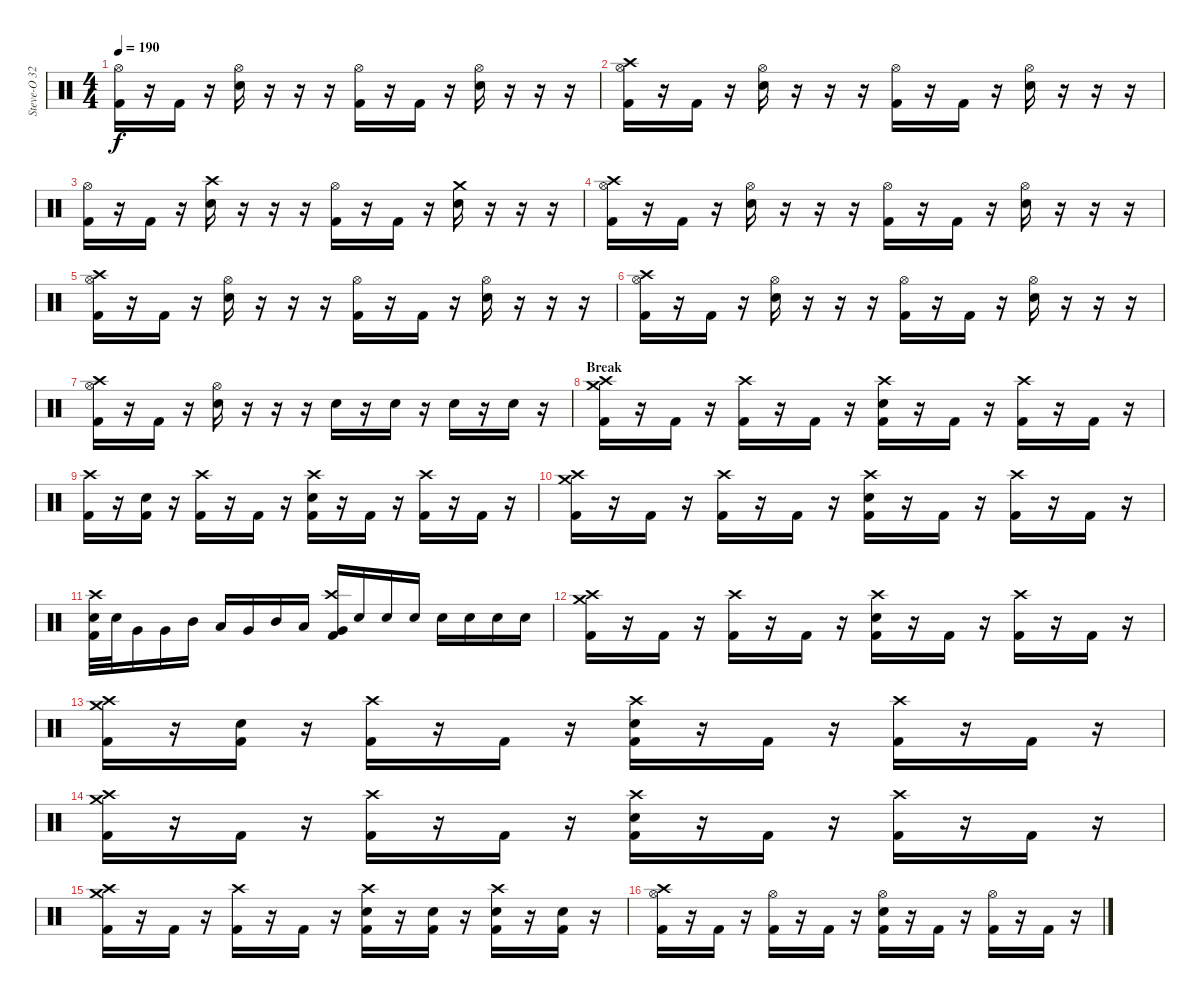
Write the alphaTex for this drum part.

\track ("Steve-O 32 ( Drums )" "Steve-O 32") {instrument percussion}
\staff {score}
\articulation defaults
\ts (4 4)
\tempo 190
\clef neutral
\ks c
("Hi-Hat (open)" "Kick (hit) 2").16{dy f} r.16 "Kick (hit) 2".16 r.16 ("Hi-Hat (open)" "Snare (hit) 2").16 r.16 r.16 r.16 ("Hi-Hat (open)" "Kick (hit) 2").16 r.16 "Kick (hit) 2".16 r.16 ("Hi-Hat (open)" "Snare (hit) 2").16 r.16 r.16 r.16 |
("Hi-Hat (open)" "Crash high (hit)" "Kick (hit) 2").16 r.16 "Kick (hit) 2".16 r.16 ("Hi-Hat (open)" "Snare (hit) 2").16 r.16 r.16 r.16 ("Hi-Hat (open)" "Kick (hit) 2").16 r.16 "Kick (hit) 2".16 r.16 ("Hi-Hat (open)" "Snare (hit) 2").16 r.16 r.16 r.16 |
("Hi-Hat (open)" "Kick (hit) 2").16 r.16 "Kick (hit) 2".16 r.16 ("Crash high (hit)" "Snare (hit) 2").16 r.16 r.16 r.16 ("Hi-Hat (open)" "Kick (hit) 2").16 r.16 "Kick (hit) 2".16 r.16 ("Crash medium (hit)" "Snare (hit) 2").16 r.16 r.16 r.16 |
("Hi-Hat (open)" "Crash high (hit)" "Kick (hit) 2").16 r.16 "Kick (hit) 2".16 r.16 ("Hi-Hat (open)" "Snare (hit) 2").16 r.16 r.16 r.16 ("Hi-Hat (open)" "Kick (hit) 2").16 r.16 "Kick (hit) 2".16 r.16 ("Hi-Hat (open)" "Snare (hit) 2").16 r.16 r.16 r.16 |
("Hi-Hat (open)" "Crash high (hit)" "Kick (hit) 2").16 r.16 "Kick (hit) 2".16 r.16 ("Hi-Hat (open)" "Snare (hit) 2").16 r.16 r.16 r.16 ("Hi-Hat (open)" "Kick (hit) 2").16 r.16 "Kick (hit) 2".16 r.16 ("Hi-Hat (open)" "Snare (hit) 2").16 r.16 r.16 r.16 |
("Hi-Hat (open)" "Crash high (hit)" "Kick (hit) 2").16 r.16 "Kick (hit) 2".16 r.16 ("Hi-Hat (open)" "Snare (hit) 2").16 r.16 r.16 r.16 ("Hi-Hat (open)" "Kick (hit) 2").16 r.16 "Kick (hit) 2".16 r.16 ("Hi-Hat (open)" "Snare (hit) 2").16 r.16 r.16 r.16 |
("Hi-Hat (open)" "Crash high (hit)" "Kick (hit) 2").16 r.16 "Kick (hit) 2".16 r.16 ("Hi-Hat (open)" "Snare (hit) 2").16 r.16 r.16 r.16 "Snare (hit) 2".16 r.16 "Snare (hit) 2".16 r.16 "Snare (hit) 2".16 r.16 "Snare (hit) 2".16 r.16 |
\section ("" "Break")
("Crash medium (hit)" "Crash high (hit)" "Kick (hit) 2").16 r.16 "Kick (hit) 2".16 r.16 ("Crash high (hit)" "Kick (hit) 2").16 r.16 "Kick (hit) 2".16 r.16 ("Crash high (hit)" "Snare (hit) 2" "Kick (hit) 2").16 r.16 "Kick (hit) 2".16 r.16 ("Crash high (hit)" "Kick (hit) 2").16 r.16 "Kick (hit) 2".16 r.16 |
("Crash high (hit)" "Kick (hit) 2").16 r.16 ("Snare (hit) 2" "Kick (hit) 2").16 r.16 ("Crash high (hit)" "Kick (hit) 2").16 r.16 "Kick (hit) 2".16 r.16 ("Crash high (hit)" "Snare (hit) 2" "Kick (hit) 2").16 r.16 "Kick (hit) 2".16 r.16 ("Crash high (hit)" "Kick (hit) 2").16 r.16 "Kick (hit) 2".16 r.16 |
("Crash medium (hit)" "Crash high (hit)" "Kick (hit) 2").16 r.16 "Kick (hit) 2".16 r.16 ("Crash high (hit)" "Kick (hit) 2").16 r.16 "Kick (hit) 2".16 r.16 ("Crash high (hit)" "Snare (hit) 2" "Kick (hit) 2").16 r.16 "Kick (hit) 2".16 r.16 ("Crash high (hit)" "Kick (hit) 2").16 r.16 "Kick (hit) 2".16 r.16 |
("Snare (hit) 2" "Kick (hit) 2" "Crash high (hit)").32 "Snare (hit) 2".32 "Very Low Tom (hit)".16 "Very Low Tom (hit)".16 "Mid Tom (hit)".16 "Low Tom (hit)".16 "Very Low Tom (hit)".16 "Mid Tom (hit)".16 "Low Tom (hit)".16 ("Very Low Tom (hit)" "Crash high (hit)" "Kick (hit) 2").16 "Snare (hit) 2".16 "Snare (hit) 2".16 "Snare (hit) 2".16 "Snare (hit) 2".16 "Snare (hit) 2".16 "Snare (hit) 2".16 "Snare (hit) 2".16 |
("Crash medium (hit)" "Crash high (hit)" "Kick (hit) 2").16 r.16 "Kick (hit) 2".16 r.16 ("Crash high (hit)" "Kick (hit) 2").16 r.16 "Kick (hit) 2".16 r.16 ("Crash high (hit)" "Snare (hit) 2" "Kick (hit) 2").16 r.16 "Kick (hit) 2".16 r.16 ("Crash high (hit)" "Kick (hit) 2").16 r.16 "Kick (hit) 2".16 r.16 |
("Crash medium (hit)" "Crash high (hit)" "Kick (hit) 2").16 r.16 ("Snare (hit) 2" "Kick (hit) 2").16 r.16 ("Crash high (hit)" "Kick (hit) 2").16 r.16 "Kick (hit) 2".16 r.16 ("Crash high (hit)" "Snare (hit) 2" "Kick (hit) 2").16 r.16 "Kick (hit) 2".16 r.16 ("Crash high (hit)" "Kick (hit) 2").16 r.16 "Kick (hit) 2".16 r.16 |
("Crash medium (hit)" "Crash high (hit)" "Kick (hit) 2").16 r.16 "Kick (hit) 2".16 r.16 ("Crash high (hit)" "Kick (hit) 2").16 r.16 "Kick (hit) 2".16 r.16 ("Crash high (hit)" "Snare (hit) 2" "Kick (hit) 2").16 r.16 "Kick (hit) 2".16 r.16 ("Crash high (hit)" "Kick (hit) 2").16 r.16 "Kick (hit) 2".16 r.16 |
("Crash medium (hit)" "Crash high (hit)" "Kick (hit) 2").16 r.16 "Kick (hit) 2".16 r.16 ("Crash high (hit)" "Kick (hit) 2").16 r.16 "Kick (hit) 2".16 r.16 ("Crash high (hit)" "Snare (hit) 2" "Kick (hit) 2").16 r.16 ("Snare (hit) 2" "Kick (hit) 2").16 r.16 ("Crash high (hit)" "Snare (hit) 2" "Kick (hit) 2").16 r.16 ("Snare (hit) 2" "Kick (hit) 2").16 r.16 |
("Hi-Hat (open)" "Crash high (hit)" "Kick (hit) 2").16 r.16 "Kick (hit) 2".16 r.16 ("Hi-Hat (open)" "Kick (hit) 2").16 r.16 "Kick (hit) 2".16 r.16 ("Hi-Hat (open)" "Snare (hit) 2" "Kick (hit) 2").16 r.16 "Kick (hit) 2".16 r.16 ("Hi-Hat (open)" "Kick (hit) 2").16 r.16 "Kick (hit) 2".16 r.16
